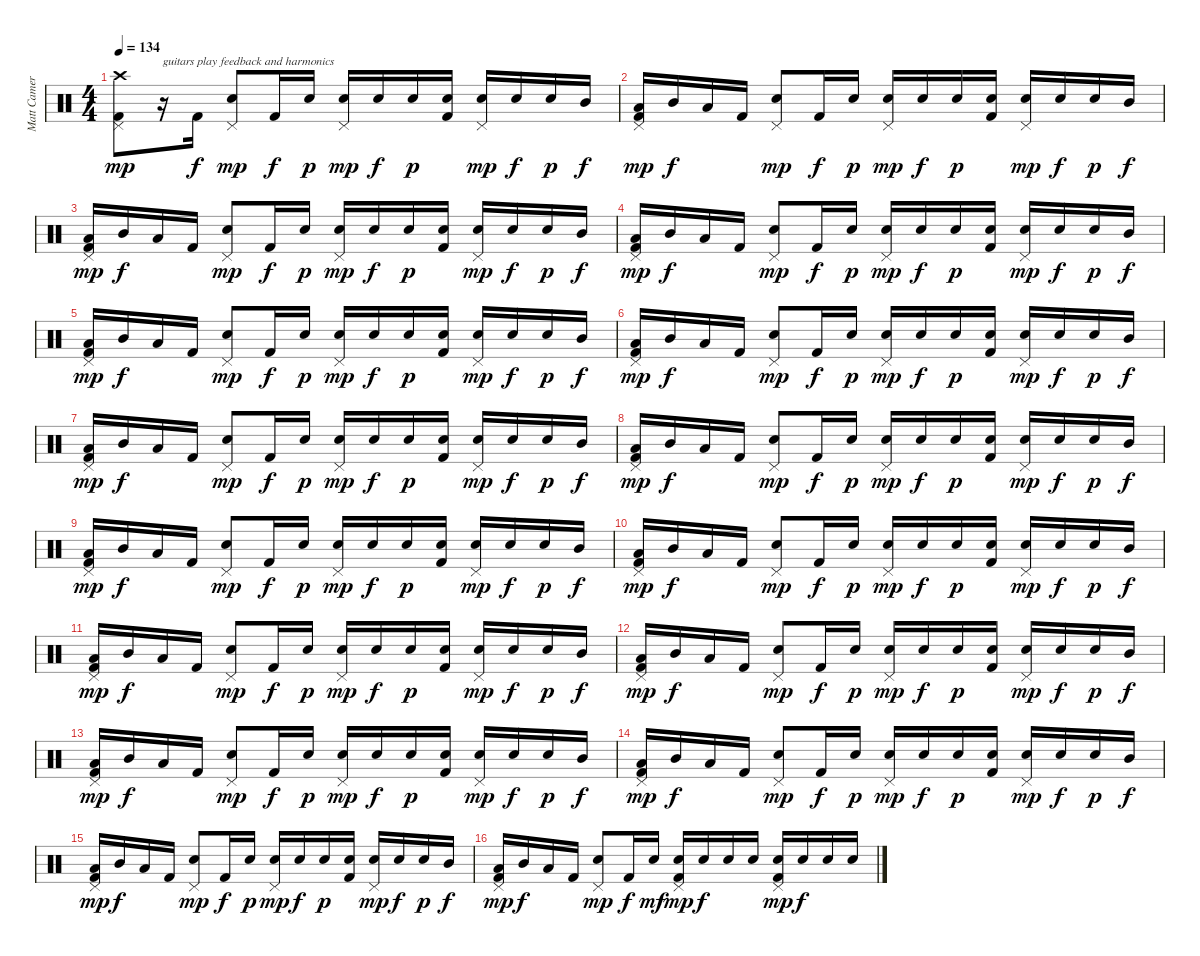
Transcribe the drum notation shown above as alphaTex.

\track ("Matt Cameron" "Matt Camer") {instrument percussion}
\staff {score}
\articulation defaults
\ts (4 4)
\tempo 134
\clef neutral
\ks c
("Crash high (hit)" "Pedal Hi-Hat (hit)" "Kick (hit) 2").8{dy mp} r.16{txt "guitars play feedback and harmonics"} "Kick (hit) 2".16{dy f} ("Electric Snare (hit)" "Pedal Hi-Hat (hit)").8{dy mp} "Kick (hit) 2".16{dy f} "Electric Snare (hit)".16{dy p} ("Electric Snare (hit)" "Pedal Hi-Hat (hit)").16{dy mp} "Electric Snare (hit)".16{dy f} "Electric Snare (hit)".16{dy p} ("Electric Snare (hit)" "Kick (hit) 2").16 ("Electric Snare (hit)" "Pedal Hi-Hat (hit)").16{dy mp} "Electric Snare (hit)".16{dy f} "Electric Snare (hit)".16{dy p} "Mid Tom (hit)".16{dy f} |
("Low Tom (hit)" "Pedal Hi-Hat (hit)" "Kick (hit) 2").16{dy mp} "Mid Tom (hit)".16{dy f} "Low Tom (hit)".16 "Kick (hit) 2".16 ("Electric Snare (hit)" "Pedal Hi-Hat (hit)").8{dy mp} "Kick (hit) 2".16{dy f} "Electric Snare (hit)".16{dy p} ("Electric Snare (hit)" "Pedal Hi-Hat (hit)").16{dy mp} "Electric Snare (hit)".16{dy f} "Electric Snare (hit)".16{dy p} ("Electric Snare (hit)" "Kick (hit) 2").16 ("Electric Snare (hit)" "Pedal Hi-Hat (hit)").16{dy mp} "Electric Snare (hit)".16{dy f} "Electric Snare (hit)".16{dy p} "Mid Tom (hit)".16{dy f} |
("Low Tom (hit)" "Pedal Hi-Hat (hit)" "Kick (hit) 2").16{dy mp} "Mid Tom (hit)".16{dy f} "Low Tom (hit)".16 "Kick (hit) 2".16 ("Electric Snare (hit)" "Pedal Hi-Hat (hit)").8{dy mp} "Kick (hit) 2".16{dy f} "Electric Snare (hit)".16{dy p} ("Electric Snare (hit)" "Pedal Hi-Hat (hit)").16{dy mp} "Electric Snare (hit)".16{dy f} "Electric Snare (hit)".16{dy p} ("Electric Snare (hit)" "Kick (hit) 2").16 ("Electric Snare (hit)" "Pedal Hi-Hat (hit)").16{dy mp} "Electric Snare (hit)".16{dy f} "Electric Snare (hit)".16{dy p} "Mid Tom (hit)".16{dy f} |
("Low Tom (hit)" "Pedal Hi-Hat (hit)" "Kick (hit) 2").16{dy mp} "Mid Tom (hit)".16{dy f} "Low Tom (hit)".16 "Kick (hit) 2".16 ("Electric Snare (hit)" "Pedal Hi-Hat (hit)").8{dy mp} "Kick (hit) 2".16{dy f} "Electric Snare (hit)".16{dy p} ("Electric Snare (hit)" "Pedal Hi-Hat (hit)").16{dy mp} "Electric Snare (hit)".16{dy f} "Electric Snare (hit)".16{dy p} ("Electric Snare (hit)" "Kick (hit) 2").16 ("Electric Snare (hit)" "Pedal Hi-Hat (hit)").16{dy mp} "Electric Snare (hit)".16{dy f} "Electric Snare (hit)".16{dy p} "Mid Tom (hit)".16{dy f} |
("Low Tom (hit)" "Pedal Hi-Hat (hit)" "Kick (hit) 2").16{dy mp} "Mid Tom (hit)".16{dy f} "Low Tom (hit)".16 "Kick (hit) 2".16 ("Electric Snare (hit)" "Pedal Hi-Hat (hit)").8{dy mp} "Kick (hit) 2".16{dy f} "Electric Snare (hit)".16{dy p} ("Electric Snare (hit)" "Pedal Hi-Hat (hit)").16{dy mp} "Electric Snare (hit)".16{dy f} "Electric Snare (hit)".16{dy p} ("Electric Snare (hit)" "Kick (hit) 2").16 ("Electric Snare (hit)" "Pedal Hi-Hat (hit)").16{dy mp} "Electric Snare (hit)".16{dy f} "Electric Snare (hit)".16{dy p} "Mid Tom (hit)".16{dy f} |
("Low Tom (hit)" "Pedal Hi-Hat (hit)" "Kick (hit) 2").16{dy mp} "Mid Tom (hit)".16{dy f} "Low Tom (hit)".16 "Kick (hit) 2".16 ("Electric Snare (hit)" "Pedal Hi-Hat (hit)").8{dy mp} "Kick (hit) 2".16{dy f} "Electric Snare (hit)".16{dy p} ("Electric Snare (hit)" "Pedal Hi-Hat (hit)").16{dy mp} "Electric Snare (hit)".16{dy f} "Electric Snare (hit)".16{dy p} ("Electric Snare (hit)" "Kick (hit) 2").16 ("Electric Snare (hit)" "Pedal Hi-Hat (hit)").16{dy mp} "Electric Snare (hit)".16{dy f} "Electric Snare (hit)".16{dy p} "Mid Tom (hit)".16{dy f} |
("Low Tom (hit)" "Pedal Hi-Hat (hit)" "Kick (hit) 2").16{dy mp} "Mid Tom (hit)".16{dy f} "Low Tom (hit)".16 "Kick (hit) 2".16 ("Electric Snare (hit)" "Pedal Hi-Hat (hit)").8{dy mp} "Kick (hit) 2".16{dy f} "Electric Snare (hit)".16{dy p} ("Electric Snare (hit)" "Pedal Hi-Hat (hit)").16{dy mp} "Electric Snare (hit)".16{dy f} "Electric Snare (hit)".16{dy p} ("Electric Snare (hit)" "Kick (hit) 2").16 ("Electric Snare (hit)" "Pedal Hi-Hat (hit)").16{dy mp} "Electric Snare (hit)".16{dy f} "Electric Snare (hit)".16{dy p} "Mid Tom (hit)".16{dy f} |
("Low Tom (hit)" "Pedal Hi-Hat (hit)" "Kick (hit) 2").16{dy mp} "Mid Tom (hit)".16{dy f} "Low Tom (hit)".16 "Kick (hit) 2".16 ("Electric Snare (hit)" "Pedal Hi-Hat (hit)").8{dy mp} "Kick (hit) 2".16{dy f} "Electric Snare (hit)".16{dy p} ("Electric Snare (hit)" "Pedal Hi-Hat (hit)").16{dy mp} "Electric Snare (hit)".16{dy f} "Electric Snare (hit)".16{dy p} ("Electric Snare (hit)" "Kick (hit) 2").16 ("Electric Snare (hit)" "Pedal Hi-Hat (hit)").16{dy mp} "Electric Snare (hit)".16{dy f} "Electric Snare (hit)".16{dy p} "Mid Tom (hit)".16{dy f} |
("Low Tom (hit)" "Pedal Hi-Hat (hit)" "Kick (hit) 2").16{dy mp} "Mid Tom (hit)".16{dy f} "Low Tom (hit)".16 "Kick (hit) 2".16 ("Electric Snare (hit)" "Pedal Hi-Hat (hit)").8{dy mp} "Kick (hit) 2".16{dy f} "Electric Snare (hit)".16{dy p} ("Electric Snare (hit)" "Pedal Hi-Hat (hit)").16{dy mp} "Electric Snare (hit)".16{dy f} "Electric Snare (hit)".16{dy p} ("Electric Snare (hit)" "Kick (hit) 2").16 ("Electric Snare (hit)" "Pedal Hi-Hat (hit)").16{dy mp} "Electric Snare (hit)".16{dy f} "Electric Snare (hit)".16{dy p} "Mid Tom (hit)".16{dy f} |
("Low Tom (hit)" "Pedal Hi-Hat (hit)" "Kick (hit) 2").16{dy mp} "Mid Tom (hit)".16{dy f} "Low Tom (hit)".16 "Kick (hit) 2".16 ("Electric Snare (hit)" "Pedal Hi-Hat (hit)").8{dy mp} "Kick (hit) 2".16{dy f} "Electric Snare (hit)".16{dy p} ("Electric Snare (hit)" "Pedal Hi-Hat (hit)").16{dy mp} "Electric Snare (hit)".16{dy f} "Electric Snare (hit)".16{dy p} ("Electric Snare (hit)" "Kick (hit) 2").16 ("Electric Snare (hit)" "Pedal Hi-Hat (hit)").16{dy mp} "Electric Snare (hit)".16{dy f} "Electric Snare (hit)".16{dy p} "Mid Tom (hit)".16{dy f} |
("Low Tom (hit)" "Pedal Hi-Hat (hit)" "Kick (hit) 2").16{dy mp} "Mid Tom (hit)".16{dy f} "Low Tom (hit)".16 "Kick (hit) 2".16 ("Electric Snare (hit)" "Pedal Hi-Hat (hit)").8{dy mp} "Kick (hit) 2".16{dy f} "Electric Snare (hit)".16{dy p} ("Electric Snare (hit)" "Pedal Hi-Hat (hit)").16{dy mp} "Electric Snare (hit)".16{dy f} "Electric Snare (hit)".16{dy p} ("Electric Snare (hit)" "Kick (hit) 2").16 ("Electric Snare (hit)" "Pedal Hi-Hat (hit)").16{dy mp} "Electric Snare (hit)".16{dy f} "Electric Snare (hit)".16{dy p} "Mid Tom (hit)".16{dy f} |
("Low Tom (hit)" "Pedal Hi-Hat (hit)" "Kick (hit) 2").16{dy mp} "Mid Tom (hit)".16{dy f} "Low Tom (hit)".16 "Kick (hit) 2".16 ("Electric Snare (hit)" "Pedal Hi-Hat (hit)").8{dy mp} "Kick (hit) 2".16{dy f} "Electric Snare (hit)".16{dy p} ("Electric Snare (hit)" "Pedal Hi-Hat (hit)").16{dy mp} "Electric Snare (hit)".16{dy f} "Electric Snare (hit)".16{dy p} ("Electric Snare (hit)" "Kick (hit) 2").16 ("Electric Snare (hit)" "Pedal Hi-Hat (hit)").16{dy mp} "Electric Snare (hit)".16{dy f} "Electric Snare (hit)".16{dy p} "Mid Tom (hit)".16{dy f} |
("Low Tom (hit)" "Pedal Hi-Hat (hit)" "Kick (hit) 2").16{dy mp} "Mid Tom (hit)".16{dy f} "Low Tom (hit)".16 "Kick (hit) 2".16 ("Electric Snare (hit)" "Pedal Hi-Hat (hit)").8{dy mp} "Kick (hit) 2".16{dy f} "Electric Snare (hit)".16{dy p} ("Electric Snare (hit)" "Pedal Hi-Hat (hit)").16{dy mp} "Electric Snare (hit)".16{dy f} "Electric Snare (hit)".16{dy p} ("Electric Snare (hit)" "Kick (hit) 2").16 ("Electric Snare (hit)" "Pedal Hi-Hat (hit)").16{dy mp} "Electric Snare (hit)".16{dy f} "Electric Snare (hit)".16{dy p} "Mid Tom (hit)".16{dy f} |
("Low Tom (hit)" "Pedal Hi-Hat (hit)" "Kick (hit) 2").16{dy mp} "Mid Tom (hit)".16{dy f} "Low Tom (hit)".16 "Kick (hit) 2".16 ("Electric Snare (hit)" "Pedal Hi-Hat (hit)").8{dy mp} "Kick (hit) 2".16{dy f} "Electric Snare (hit)".16{dy p} ("Electric Snare (hit)" "Pedal Hi-Hat (hit)").16{dy mp} "Electric Snare (hit)".16{dy f} "Electric Snare (hit)".16{dy p} ("Electric Snare (hit)" "Kick (hit) 2").16 ("Electric Snare (hit)" "Pedal Hi-Hat (hit)").16{dy mp} "Electric Snare (hit)".16{dy f} "Electric Snare (hit)".16{dy p} "Mid Tom (hit)".16{dy f} |
("Low Tom (hit)" "Pedal Hi-Hat (hit)" "Kick (hit) 2").16{dy mp} "Mid Tom (hit)".16{dy f} "Low Tom (hit)".16 "Kick (hit) 2".16 ("Electric Snare (hit)" "Pedal Hi-Hat (hit)").8{dy mp} "Kick (hit) 2".16{dy f} "Electric Snare (hit)".16{dy p} ("Electric Snare (hit)" "Pedal Hi-Hat (hit)").16{dy mp} "Electric Snare (hit)".16{dy f} "Electric Snare (hit)".16{dy p} ("Electric Snare (hit)" "Kick (hit) 2").16 ("Electric Snare (hit)" "Pedal Hi-Hat (hit)").16{dy mp} "Electric Snare (hit)".16{dy f} "Electric Snare (hit)".16{dy p} "Mid Tom (hit)".16{dy f} |
("Low Tom (hit)" "Pedal Hi-Hat (hit)" "Kick (hit) 2").16{dy mp} "Mid Tom (hit)".16{dy f} "Low Tom (hit)".16 "Kick (hit) 2".16 ("Electric Snare (hit)" "Pedal Hi-Hat (hit)").8{dy mp} "Kick (hit) 2".16{dy f} "Electric Snare (hit)".16{dy mf} ("Electric Snare (hit)" "Pedal Hi-Hat (hit)" "Kick (hit) 2").16{dy mp} "Electric Snare (hit)".16{dy f} "Electric Snare (hit)".16 "Electric Snare (hit)".16 ("Electric Snare (hit)" "Pedal Hi-Hat (hit)" "Kick (hit) 2").16{dy mp} "Electric Snare (hit)".16{dy f} "Electric Snare (hit)".16 "Electric Snare (hit)".16
